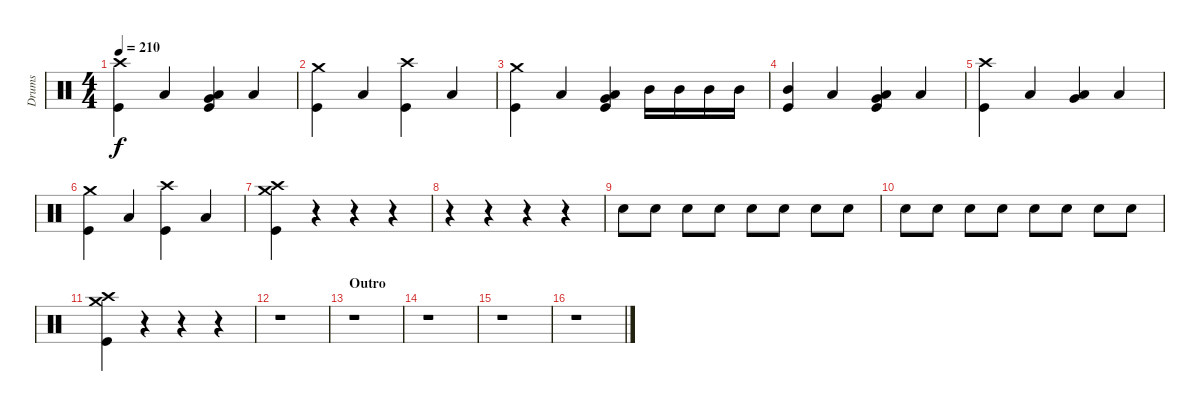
\track ("Drums" "Drums") {instrument percussion}
\staff {score}
\articulation defaults
\ts (4 4)
\tempo 210
\clef neutral
\ks c
("Crash high (hit)" "Kick (hit)").4{dy f} "Low Floor Tom (hit)".4 ("Low Tom (hit)" "Very Low Tom (hit)" "Kick (hit)").4 "Low Floor Tom (hit)".4 |
("Crash medium (hit)" "Kick (hit)").4 "Low Floor Tom (hit)".4 ("Crash high (hit)" "Kick (hit)").4 "Low Floor Tom (hit)".4 |
("Crash medium (hit)" "Kick (hit)").4 "Low Floor Tom (hit)".4 ("Low Tom (hit)" "Very Low Tom (hit)" "Kick (hit)").4 "Mid Tom (hit)".16 "Mid Tom (hit)".16 "Mid Tom (hit)".16 "Mid Tom (hit)".16 |
("Mid Tom (hit)" "Kick (hit)").4 "Low Floor Tom (hit)".4 ("Low Tom (hit)" "Very Low Tom (hit)" "Kick (hit)").4 "Low Floor Tom (hit)".4 |
("Crash high (hit)" "Kick (hit)").4 "Low Floor Tom (hit)".4 ("Low Tom (hit)" "Very Low Tom (hit)").4 "Low Floor Tom (hit)".4 |
("Crash medium (hit)" "Kick (hit)").4 "Low Floor Tom (hit)".4 ("Crash high (hit)" "Kick (hit)").4 "Low Floor Tom (hit)".4 |
("Crash high (hit)" "Crash medium (hit)" "Kick (hit)").4 r.4 r.4 r.4 |
r.4 r.4 r.4 r.4 |
"Snare (hit) 2".8 "Snare (hit) 2".8 "Snare (hit) 2".8 "Snare (hit) 2".8 "Snare (hit) 2".8 "Snare (hit) 2".8 "Snare (hit) 2".8 "Snare (hit) 2".8 |
"Snare (hit) 2".8 "Snare (hit) 2".8 "Snare (hit) 2".8 "Snare (hit) 2".8 "Snare (hit) 2".8 "Snare (hit) 2".8 "Snare (hit) 2".8 "Snare (hit) 2".8 |
("Crash high (hit)" "Crash medium (hit)" "Kick (hit)").4 r.4 r.4 r.4 |
r.1 |
\section ("" "Outro")
r.1 |
r.1 |
r.1 |
r.1
